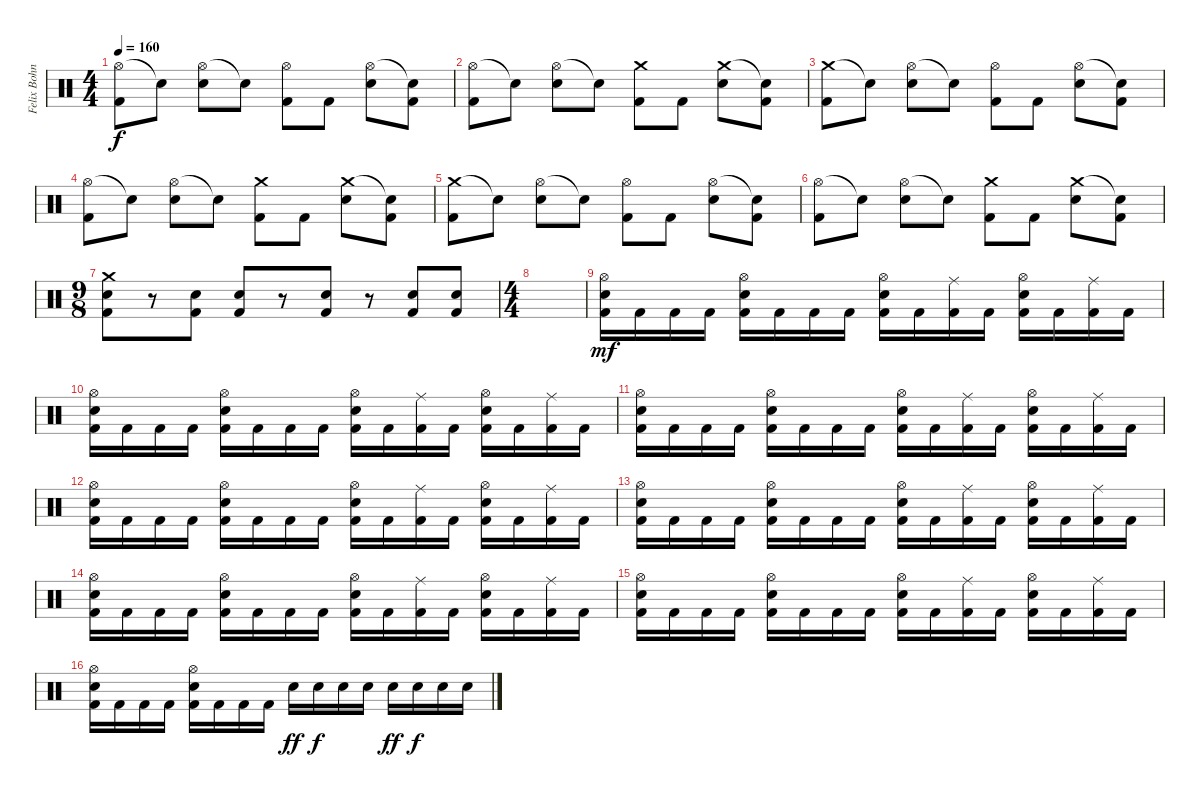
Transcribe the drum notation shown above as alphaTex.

\track ("Felix Bohnke" "Felix Bohn") {instrument percussion}
\staff {score}
\articulation defaults
\ts (4 4)
\tempo 160
\clef neutral
\ks c
("Hi-Hat (open)" "Kick (hit) 2").8{dy f} "Snare (hit)"{t}.8 ("Hi-Hat (open)" "Electric Snare (hit)").8 "Snare (hit)"{t}.8 ("Hi-Hat (open)" "Kick (hit) 2").8 "Kick (hit) 2".8 ("Hi-Hat (open)" "Electric Snare (hit)").8 ("Snare (hit)"{t} "Kick (hit) 2").8 |
("Hi-Hat (open)" "Kick (hit) 2").8 "Snare (hit)"{t}.8 ("Hi-Hat (open)" "Electric Snare (hit)").8 "Snare (hit)"{t}.8 ("Crash medium (hit)" "Kick (hit) 2").8 "Kick (hit) 2".8 ("Crash medium (hit)" "Electric Snare (hit)").8 ("Snare (hit)"{t} "Kick (hit) 2").8 |
("Crash medium (hit)" "Kick (hit) 2").8 "Snare (hit)"{t}.8 ("Hi-Hat (open)" "Electric Snare (hit)").8 "Snare (hit)"{t}.8 ("Hi-Hat (open)" "Kick (hit) 2").8 "Kick (hit) 2".8 ("Hi-Hat (open)" "Electric Snare (hit)").8 ("Snare (hit)"{t} "Kick (hit) 2").8 |
("Hi-Hat (open)" "Kick (hit) 2").8 "Snare (hit)"{t}.8 ("Hi-Hat (open)" "Electric Snare (hit)").8 "Snare (hit)"{t}.8 ("Crash medium (hit)" "Kick (hit) 2").8 "Kick (hit) 2".8 ("Crash medium (hit)" "Electric Snare (hit)").8 ("Snare (hit)"{t} "Kick (hit) 2").8 |
("Crash medium (hit)" "Kick (hit) 2").8 "Snare (hit)"{t}.8 ("Hi-Hat (open)" "Electric Snare (hit)").8 "Snare (hit)"{t}.8 ("Hi-Hat (open)" "Kick (hit) 2").8 "Kick (hit) 2".8 ("Hi-Hat (open)" "Electric Snare (hit)").8 ("Snare (hit)"{t} "Kick (hit) 2").8 |
("Hi-Hat (open)" "Kick (hit) 2").8 "Snare (hit)"{t}.8 ("Hi-Hat (open)" "Electric Snare (hit)").8 "Snare (hit)"{t}.8 ("Crash medium (hit)" "Kick (hit) 2").8 "Kick (hit) 2".8 ("Crash medium (hit)" "Electric Snare (hit)").8 ("Snare (hit)"{t} "Kick (hit) 2").8 |
\ts (9 8)
("Crash medium (hit)" "Electric Snare (hit)" "Kick (hit) 2").8 r.8 ("Electric Snare (hit)" "Kick (hit) 2").8 ("Electric Snare (hit)" "Kick (hit) 2").8 r.8 ("Electric Snare (hit)" "Kick (hit) 2").8 r.8 ("Electric Snare (hit)" "Kick (hit) 2").8 ("Electric Snare (hit)" "Kick (hit) 2").8 |
\ts (4 4)
|
("Hi-Hat (open)" "Electric Snare (hit)" "Kick (hit) 2").16{dy mf} "Kick (hit) 2".16 "Kick (hit) 2".16 "Kick (hit) 2".16 ("Hi-Hat (open)" "Electric Snare (hit)" "Kick (hit) 2").16 "Kick (hit) 2".16 "Kick (hit) 2".16 "Kick (hit) 2".16 ("Hi-Hat (open)" "Electric Snare (hit)" "Kick (hit) 2").16 "Kick (hit) 2".16 ("Ride (middle)" "Kick (hit) 2").16 "Kick (hit) 2".16 ("Hi-Hat (open)" "Electric Snare (hit)" "Kick (hit) 2").16 "Kick (hit) 2".16 ("Ride (middle)" "Kick (hit) 2").16 "Kick (hit) 2".16 |
("Hi-Hat (open)" "Electric Snare (hit)" "Kick (hit) 2").16 "Kick (hit) 2".16 "Kick (hit) 2".16 "Kick (hit) 2".16 ("Hi-Hat (open)" "Electric Snare (hit)" "Kick (hit) 2").16 "Kick (hit) 2".16 "Kick (hit) 2".16 "Kick (hit) 2".16 ("Hi-Hat (open)" "Electric Snare (hit)" "Kick (hit) 2").16 "Kick (hit) 2".16 ("Ride (middle)" "Kick (hit) 2").16 "Kick (hit) 2".16 ("Hi-Hat (open)" "Electric Snare (hit)" "Kick (hit) 2").16 "Kick (hit) 2".16 ("Ride (middle)" "Kick (hit) 2").16 "Kick (hit) 2".16 |
("Hi-Hat (open)" "Electric Snare (hit)" "Kick (hit) 2").16 "Kick (hit) 2".16 "Kick (hit) 2".16 "Kick (hit) 2".16 ("Hi-Hat (open)" "Electric Snare (hit)" "Kick (hit) 2").16 "Kick (hit) 2".16 "Kick (hit) 2".16 "Kick (hit) 2".16 ("Hi-Hat (open)" "Electric Snare (hit)" "Kick (hit) 2").16 "Kick (hit) 2".16 ("Ride (middle)" "Kick (hit) 2").16 "Kick (hit) 2".16 ("Hi-Hat (open)" "Electric Snare (hit)" "Kick (hit) 2").16 "Kick (hit) 2".16 ("Ride (middle)" "Kick (hit) 2").16 "Kick (hit) 2".16 |
("Hi-Hat (open)" "Electric Snare (hit)" "Kick (hit) 2").16 "Kick (hit) 2".16 "Kick (hit) 2".16 "Kick (hit) 2".16 ("Hi-Hat (open)" "Electric Snare (hit)" "Kick (hit) 2").16 "Kick (hit) 2".16 "Kick (hit) 2".16 "Kick (hit) 2".16 ("Hi-Hat (open)" "Electric Snare (hit)" "Kick (hit) 2").16 "Kick (hit) 2".16 ("Ride (middle)" "Kick (hit) 2").16 "Kick (hit) 2".16 ("Hi-Hat (open)" "Electric Snare (hit)" "Kick (hit) 2").16 "Kick (hit) 2".16 ("Ride (middle)" "Kick (hit) 2").16 "Kick (hit) 2".16 |
("Hi-Hat (open)" "Electric Snare (hit)" "Kick (hit) 2").16 "Kick (hit) 2".16 "Kick (hit) 2".16 "Kick (hit) 2".16 ("Hi-Hat (open)" "Electric Snare (hit)" "Kick (hit) 2").16 "Kick (hit) 2".16 "Kick (hit) 2".16 "Kick (hit) 2".16 ("Hi-Hat (open)" "Electric Snare (hit)" "Kick (hit) 2").16 "Kick (hit) 2".16 ("Ride (middle)" "Kick (hit) 2").16 "Kick (hit) 2".16 ("Hi-Hat (open)" "Electric Snare (hit)" "Kick (hit) 2").16 "Kick (hit) 2".16 ("Ride (middle)" "Kick (hit) 2").16 "Kick (hit) 2".16 |
("Hi-Hat (open)" "Electric Snare (hit)" "Kick (hit) 2").16 "Kick (hit) 2".16 "Kick (hit) 2".16 "Kick (hit) 2".16 ("Hi-Hat (open)" "Electric Snare (hit)" "Kick (hit) 2").16 "Kick (hit) 2".16 "Kick (hit) 2".16 "Kick (hit) 2".16 ("Hi-Hat (open)" "Electric Snare (hit)" "Kick (hit) 2").16 "Kick (hit) 2".16 ("Ride (middle)" "Kick (hit) 2").16 "Kick (hit) 2".16 ("Hi-Hat (open)" "Electric Snare (hit)" "Kick (hit) 2").16 "Kick (hit) 2".16 ("Ride (middle)" "Kick (hit) 2").16 "Kick (hit) 2".16 |
("Hi-Hat (open)" "Electric Snare (hit)" "Kick (hit) 2").16 "Kick (hit) 2".16 "Kick (hit) 2".16 "Kick (hit) 2".16 ("Hi-Hat (open)" "Electric Snare (hit)" "Kick (hit) 2").16 "Kick (hit) 2".16 "Kick (hit) 2".16 "Kick (hit) 2".16 ("Hi-Hat (open)" "Electric Snare (hit)" "Kick (hit) 2").16 "Kick (hit) 2".16 ("Ride (middle)" "Kick (hit) 2").16 "Kick (hit) 2".16 ("Hi-Hat (open)" "Electric Snare (hit)" "Kick (hit) 2").16 "Kick (hit) 2".16 ("Ride (middle)" "Kick (hit) 2").16 "Kick (hit) 2".16 |
("Hi-Hat (open)" "Electric Snare (hit)" "Kick (hit) 2").16 "Kick (hit) 2".16 "Kick (hit) 2".16 "Kick (hit) 2".16 ("Hi-Hat (open)" "Electric Snare (hit)" "Kick (hit) 2").16 "Kick (hit) 2".16 "Kick (hit) 2".16 "Kick (hit) 2".16 "Electric Snare (hit)".16{dy ff} "Electric Snare (hit)".16{dy f} "Electric Snare (hit)".16 "Electric Snare (hit)".16 "Electric Snare (hit)".16{dy ff} "Electric Snare (hit)".16{dy f} "Electric Snare (hit)".16 "Electric Snare (hit)".16
